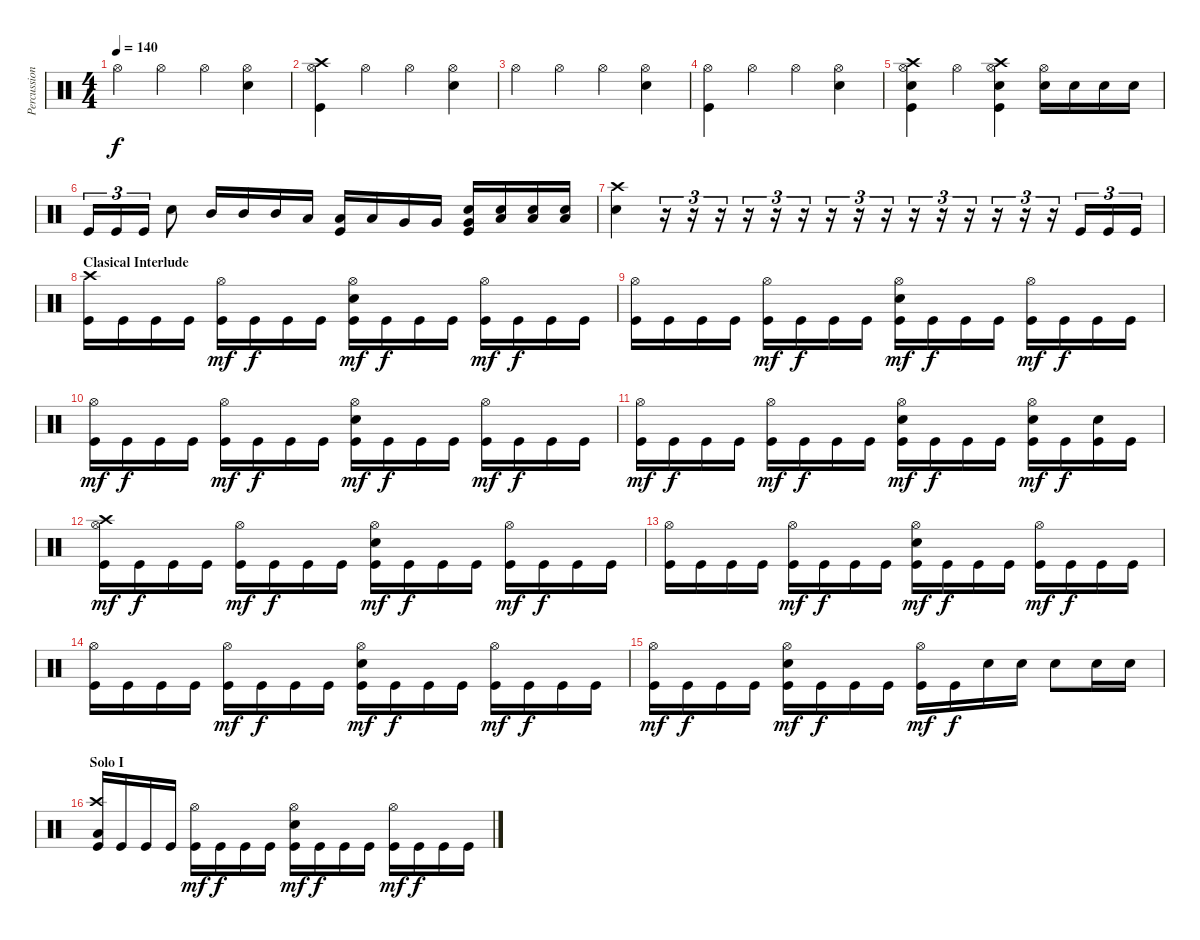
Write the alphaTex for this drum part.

\track ("Percussion" "Percussion") {instrument percussion}
\staff {score}
\articulation defaults
\ts (4 4)
\tempo 140
\clef neutral
\ks c "Hi-Hat (open)".4{dy f} "Hi-Hat (open)".4 "Hi-Hat (open)".4
("Electric Snare (hit)" "Hi-Hat (open)").4 |
("Kick (hit)" "Hi-Hat (open)" "Crash high (hit)").4 "Hi-Hat (open)".4 "Hi-Hat (open)".4 ("Electric Snare (hit)" "Hi-Hat (open)").4 |
"Hi-Hat (open)".4 "Hi-Hat (open)".4 "Hi-Hat (open)".4 ("Electric Snare (hit)" "Hi-Hat (open)").4 |
("Kick (hit)" "Hi-Hat (open)").4 "Hi-Hat (open)".4 "Hi-Hat (open)".4 ("Electric Snare (hit)" "Hi-Hat (open)").4 |
("Electric Snare (hit)" "Crash high (hit)" "Hi-Hat (open)" "Kick (hit)").4 "Hi-Hat (open)".4 ("Electric Snare (hit)" "Crash high (hit)" "Hi-Hat (open)" "Kick (hit)").4 ("Electric Snare (hit)" "Hi-Hat (open)").16 "Electric Snare (hit)".16 "Electric Snare (hit)".16 "Electric Snare (hit)".16 |
"Kick (hit)".16{tu (3 2)} "Kick (hit)".16{tu (3 2)} "Kick (hit)".16{tu (3 2)} "Electric Snare (hit)".8 "Mid Tom (hit)".16 "Mid Tom (hit)".16 "Mid Tom (hit)".16 "Low Tom (hit)".16 ("Low Tom (hit)" "Kick (hit)").16 "Low Tom (hit)".16 "Very Low Tom (hit)".16 "Very Low Tom (hit)".16 ("Very Low Tom (hit)" "Electric Snare (hit)" "Kick (hit)").16 ("Low Floor Tom (hit)" "Electric Snare (hit)").16 ("Low Floor Tom (hit)" "Electric Snare (hit)").16 ("Low Floor Tom (hit)" "Electric Snare (hit)").16 |
("Crash high (hit)" "Electric Snare (hit)").4 r.16{tu (3 2)} r.16{tu (3 2)} r.16{tu (3 2)} r.16{tu (3 2)} r.16{tu (3 2)} r.16{tu (3 2)} r.16{tu (3 2)} r.16{tu (3 2)} r.16{tu (3 2)} r.16{tu (3 2)} r.16{tu (3 2)} r.16{tu (3 2)} r.16{tu (3 2)} r.16{tu (3 2)} r.16{tu (3 2)} "Kick (hit)".16{tu (3 2)} "Kick (hit)".16{tu (3 2)} "Kick (hit)".16{tu (3 2)} |
\section ("" "Clasical Interlude")
("Kick (hit)" "Crash high (hit)").16 "Kick (hit)".16 "Kick (hit)".16 "Kick (hit)".16 ("Kick (hit)" "Hi-Hat (open)").16{dy mf} "Kick (hit)".16{dy f} "Kick (hit)".16 "Kick (hit)".16 ("Kick (hit)" "Electric Snare (hit)" "Hi-Hat (open)").16{dy mf} "Kick (hit)".16{dy f} "Kick (hit)".16 "Kick (hit)".16 ("Kick (hit)" "Hi-Hat (open)").16{dy mf} "Kick (hit)".16{dy f} "Kick (hit)".16 "Kick (hit)".16 |
("Kick (hit)" "Hi-Hat (open)").16 "Kick (hit)".16 "Kick (hit)".16 "Kick (hit)".16 ("Kick (hit)" "Hi-Hat (open)").16{dy mf} "Kick (hit)".16{dy f} "Kick (hit)".16 "Kick (hit)".16 ("Kick (hit)" "Electric Snare (hit)" "Hi-Hat (open)").16{dy mf} "Kick (hit)".16{dy f} "Kick (hit)".16 "Kick (hit)".16 ("Kick (hit)" "Hi-Hat (open)").16{dy mf} "Kick (hit)".16{dy f} "Kick (hit)".16 "Kick (hit)".16 |
("Kick (hit)" "Hi-Hat (open)").16{dy mf} "Kick (hit)".16{dy f} "Kick (hit)".16 "Kick (hit)".16 ("Kick (hit)" "Hi-Hat (open)").16{dy mf} "Kick (hit)".16{dy f} "Kick (hit)".16 "Kick (hit)".16 ("Kick (hit)" "Electric Snare (hit)" "Hi-Hat (open)").16{dy mf} "Kick (hit)".16{dy f} "Kick (hit)".16 "Kick (hit)".16 ("Kick (hit)" "Hi-Hat (open)").16{dy mf} "Kick (hit)".16{dy f} "Kick (hit)".16 "Kick (hit)".16 |
("Kick (hit)" "Hi-Hat (open)").16{dy mf} "Kick (hit)".16{dy f} "Kick (hit)".16 "Kick (hit)".16 ("Kick (hit)" "Hi-Hat (open)").16{dy mf} "Kick (hit)".16{dy f} "Kick (hit)".16 "Kick (hit)".16 ("Kick (hit)" "Electric Snare (hit)" "Hi-Hat (open)").16{dy mf} "Kick (hit)".16{dy f} "Kick (hit)".16 "Kick (hit)".16 ("Kick (hit)" "Electric Snare (hit)" "Hi-Hat (open)").16{dy mf} "Kick (hit)".16{dy f} ("Kick (hit)" "Electric Snare (hit)").16 "Kick (hit)".16 |
("Kick (hit)" "Hi-Hat (open)" "Crash high (hit)").16{dy mf} "Kick (hit)".16{dy f} "Kick (hit)".16 "Kick (hit)".16 ("Kick (hit)" "Hi-Hat (open)").16{dy mf} "Kick (hit)".16{dy f} "Kick (hit)".16 "Kick (hit)".16 ("Kick (hit)" "Electric Snare (hit)" "Hi-Hat (open)").16{dy mf} "Kick (hit)".16{dy f} "Kick (hit)".16 "Kick (hit)".16 ("Kick (hit)" "Hi-Hat (open)").16{dy mf} "Kick (hit)".16{dy f} "Kick (hit)".16 "Kick (hit)".16 |
("Kick (hit)" "Hi-Hat (open)").16 "Kick (hit)".16 "Kick (hit)".16 "Kick (hit)".16 ("Kick (hit)" "Hi-Hat (open)").16{dy mf} "Kick (hit)".16{dy f} "Kick (hit)".16 "Kick (hit)".16 ("Kick (hit)" "Electric Snare (hit)" "Hi-Hat (open)").16{dy mf} "Kick (hit)".16{dy f} "Kick (hit)".16 "Kick (hit)".16 ("Kick (hit)" "Hi-Hat (open)").16{dy mf} "Kick (hit)".16{dy f} "Kick (hit)".16 "Kick (hit)".16 |
("Kick (hit)" "Hi-Hat (open)").16 "Kick (hit)".16 "Kick (hit)".16 "Kick (hit)".16 ("Kick (hit)" "Hi-Hat (open)").16{dy mf} "Kick (hit)".16{dy f} "Kick (hit)".16 "Kick (hit)".16 ("Kick (hit)" "Electric Snare (hit)" "Hi-Hat (open)").16{dy mf} "Kick (hit)".16{dy f} "Kick (hit)".16 "Kick (hit)".16 ("Kick (hit)" "Hi-Hat (open)").16{dy mf} "Kick (hit)".16{dy f} "Kick (hit)".16 "Kick (hit)".16 |
("Kick (hit)" "Hi-Hat (open)").16{dy mf} "Kick (hit)".16{dy f} "Kick (hit)".16 "Kick (hit)".16 ("Kick (hit)" "Electric Snare (hit)" "Hi-Hat (open)").16{dy mf} "Kick (hit)".16{dy f} "Kick (hit)".16 "Kick (hit)".16 ("Kick (hit)" "Hi-Hat (open)").16{dy mf} "Kick (hit)".16{dy f} "Electric Snare (hit)".16 "Electric Snare (hit)".16 "Electric Snare (hit)".8 "Electric Snare (hit)".16 "Electric Snare (hit)".16 |
\section ("" "Solo I")
("Kick (hit)" "Low Floor Tom (hit)" "Crash high (hit)").16 "Kick (hit)".16 "Kick (hit)".16 "Kick (hit)".16 ("Kick (hit)" "Hi-Hat (open)").16{dy mf} "Kick (hit)".16{dy f} "Kick (hit)".16 "Kick (hit)".16 ("Kick (hit)" "Electric Snare (hit)" "Hi-Hat (open)").16{dy mf} "Kick (hit)".16{dy f} "Kick (hit)".16 "Kick (hit)".16 ("Kick (hit)" "Hi-Hat (open)").16{dy mf} "Kick (hit)".16{dy f} "Kick (hit)".16 "Kick (hit)".16
